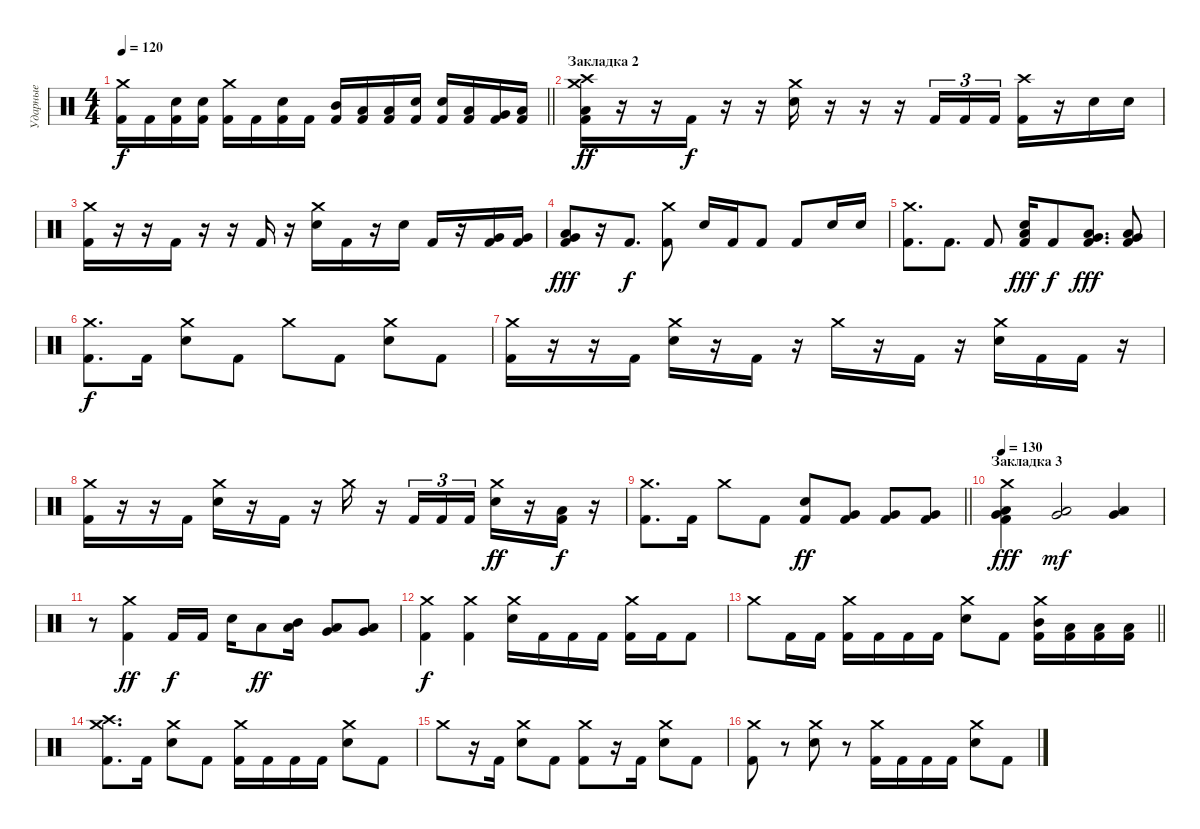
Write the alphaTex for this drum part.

\track ("Ударные" "Ударные") {instrument percussion}
\staff {score}
\articulation defaults
\ts (4 4)
\tempo 120
\clef neutral
\barLineRight lightlight
\ks c
("Crash medium (hit)" "Kick (hit) 2").16{dy f} "Kick (hit) 2".16 ("Electric Snare (hit)" "Kick (hit) 2").16 ("Electric Snare (hit)" "Kick (hit) 2").16 ("Crash medium (hit)" "Kick (hit) 2").16 "Kick (hit) 2".16 ("Electric Snare (hit)" "Kick (hit) 2").16 "Kick (hit) 2".16 ("Mid Tom (hit)" "Kick (hit) 2").16 ("Low Tom (hit)" "Kick (hit) 2").16 ("Low Tom (hit)" "Kick (hit) 2").16 ("Electric Snare (hit)" "Kick (hit) 2").16 ("Electric Snare (hit)" "Kick (hit) 2").16 ("Low Tom (hit)" "Kick (hit) 2").16 ("Very Low Tom (hit)" "Kick (hit) 2").16 ("Low Floor Tom (hit)" "Kick (hit) 2").16 |
\section ("" "Закладка 2")
("Crash medium (hit)" "Crash high (hit)" "Low Floor Tom (hit)" "Kick (hit) 2").16{dy ff} r.16 r.16 "Kick (hit) 2".16{dy f} r.16 r.16 ("Crash medium (hit)" "Electric Snare (hit)").16 r.16 r.16 r.16 "Kick (hit) 2".16{tu (3 2)} "Kick (hit) 2".16{tu (3 2)} "Kick (hit) 2".16{tu (3 2)} ("Crash high (hit)" "Kick (hit) 2").16 r.16 "Electric Snare (hit)".16 "Electric Snare (hit)".16 |
("Crash medium (hit)" "Kick (hit) 2").16 r.16 r.16 "Kick (hit) 2".16 r.16 r.16 "Kick (hit) 2".16 r.16 ("Crash medium (hit)" "Electric Snare (hit)").16 "Kick (hit) 2".16 r.16 "Electric Snare (hit)".16 "Kick (hit) 2".16 r.16 ("Very Low Tom (hit)" "Kick (hit) 2").16 ("Very Low Tom (hit)" "Kick (hit) 2").16 |
("Very Low Tom (hit)" "Low Floor Tom (hit)" "Kick (hit) 2").8{dy fff} r.16 "Kick (hit) 2".8{d dy f} ("Crash medium (hit)" "Kick (hit) 2").8 "Electric Snare (hit)".16 "Kick (hit) 2".16 "Kick (hit) 2".8 "Kick (hit) 2".8 "Electric Snare (hit)".16 "Electric Snare (hit)".16 |
("Crash medium (hit)" "Kick (hit) 2").8{d} "Kick (hit) 2".8{d} "Kick (hit) 2".8 ("Electric Snare (hit)" "Low Floor Tom (hit)" "Kick (hit) 2").16{dy fff} "Kick (hit) 2".8{dy f} ("Very Low Tom (hit)" "Low Floor Tom (hit)" "Kick (hit) 2").8{d dy fff} ("Very Low Tom (hit)" "Low Floor Tom (hit)" "Kick (hit) 2").8 |
("Crash medium (hit)" "Kick (hit) 2").8{d dy f} "Kick (hit) 2".16 ("Crash medium (hit)" "Electric Snare (hit)").8 "Kick (hit) 2".8 "Crash medium (hit)".8 "Kick (hit) 2".8 ("Crash medium (hit)" "Electric Snare (hit)").8 "Kick (hit) 2".8 |
("Crash medium (hit)" "Kick (hit) 2").16 r.16 r.16 "Kick (hit) 2".16 ("Crash medium (hit)" "Electric Snare (hit)").16 r.16 "Kick (hit) 2".16 r.16 "Crash medium (hit)".16 r.16 "Kick (hit) 2".16 r.16 ("Crash medium (hit)" "Electric Snare (hit)").16 "Kick (hit) 2".16 "Kick (hit) 2".16 r.16 |
("Crash medium (hit)" "Kick (hit) 2").16 r.16 r.16 "Kick (hit) 2".16 ("Crash medium (hit)" "Electric Snare (hit)").16 r.16 "Kick (hit) 2".16 r.16 "Crash medium (hit)".16 r.16 "Kick (hit) 2".16{tu (3 2)} "Kick (hit) 2".16{tu (3 2)} "Kick (hit) 2".16{tu (3 2)} ("Crash medium (hit)" "Electric Snare (hit)").16{dy ff} r.16 ("Low Floor Tom (hit)" "Kick (hit) 2").16{dy f} r.16 |
\barLineRight lightlight
("Crash medium (hit)" "Kick (hit) 2").8{d} "Kick (hit) 2".16 "Crash medium (hit)".8 "Kick (hit) 2".8 ("Electric Snare (hit)" "Kick (hit) 2").8{dy ff} ("Very Low Tom (hit)" "Kick (hit) 2").8 ("Very Low Tom (hit)" "Kick (hit) 2").8 ("Very Low Tom (hit)" "Kick (hit) 2").8 |
\section ("" "Закладка 3")
\tempo 130
("Crash medium (hit)" "Very Low Tom (hit)" "Low Floor Tom (hit)" "Kick (hit) 2").4{dy fff} ("Very Low Tom (hit)" "Low Floor Tom (hit)").2{dy mf} ("Very Low Tom (hit)" "Low Floor Tom (hit)").4 |
r.8 ("Crash medium (hit)" "Kick (hit) 2").4{dy ff} "Kick (hit) 2".16{dy f} "Kick (hit) 2".16 "Electric Snare (hit)".16 "Low Floor Tom (hit)".8{dy ff} ("Mid Tom (hit)" "Low Tom (hit)").16 ("Low Tom (hit)" "Very Low Tom (hit)").8 ("Low Tom (hit)" "Very Low Tom (hit)").8 |
("Crash medium (hit)" "Kick (hit) 2").4{dy f} ("Crash medium (hit)" "Kick (hit) 2").4 ("Crash medium (hit)" "Electric Snare (hit)").16 "Kick (hit) 2".16 "Kick (hit) 2".16 "Kick (hit) 2".16 ("Crash medium (hit)" "Kick (hit) 2").16 "Kick (hit) 2".16 "Kick (hit) 2".8 |
\barLineRight lightlight "Crash medium (hit)".8 "Kick (hit) 2".16 "Kick (hit) 2".16
("Crash medium (hit)" "Kick (hit) 2").16 "Kick (hit) 2".16 "Kick (hit) 2".16 "Kick (hit) 2".16 ("Crash medium (hit)" "Electric Snare (hit)").8 "Kick (hit) 2".8 ("Crash medium (hit)" "Mid Tom (hit)" "Kick (hit) 2").16 ("Low Floor Tom (hit)" "Kick (hit) 2").16 ("Low Tom (hit)" "Kick (hit) 2").16 ("Low Floor Tom (hit)" "Kick (hit) 2").16 |
("Crash medium (hit)" "Crash high (hit)" "Kick (hit) 2").8{d} "Kick (hit) 2".16 ("Crash medium (hit)" "Electric Snare (hit)").8 "Kick (hit) 2".8 ("Crash medium (hit)" "Kick (hit) 2").16 "Kick (hit) 2".16 "Kick (hit) 2".16 "Kick (hit) 2".16 ("Crash medium (hit)" "Electric Snare (hit)").8 "Kick (hit) 2".8 |
"Crash medium (hit)".8 r.16 "Kick (hit) 2".16 ("Crash medium (hit)" "Electric Snare (hit)").8 "Kick (hit) 2".8 ("Crash medium (hit)" "Kick (hit) 2").8 r.16 "Kick (hit) 2".16 ("Crash medium (hit)" "Electric Snare (hit)").8 "Kick (hit) 2".8 |
("Crash medium (hit)" "Kick (hit) 2").8 r.8 ("Crash medium (hit)" "Electric Snare (hit)").8 r.8 ("Crash medium (hit)" "Kick (hit) 2").16 "Kick (hit) 2".16 "Kick (hit) 2".16 "Kick (hit) 2".16 ("Crash medium (hit)" "Electric Snare (hit)").8 "Kick (hit) 2".8
